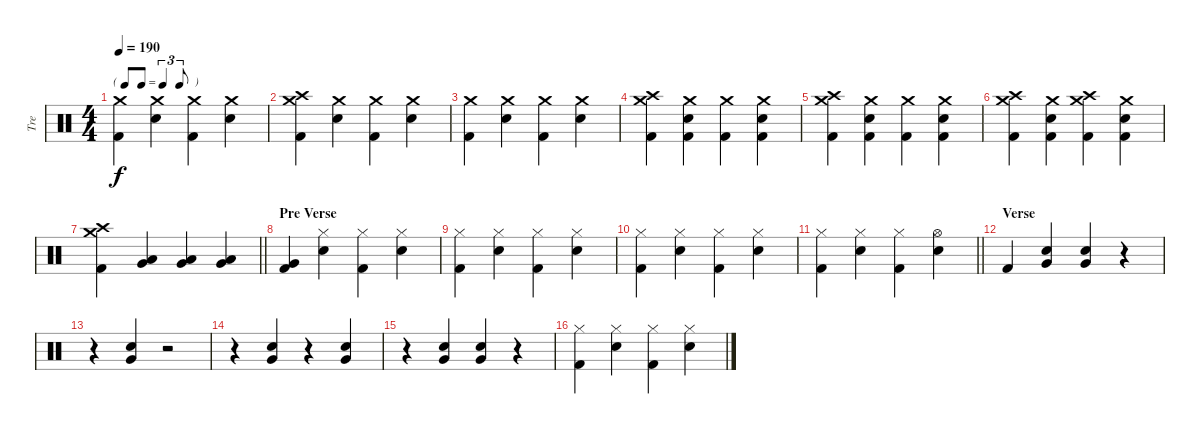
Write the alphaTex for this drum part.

\track ("Tre" "Tre") {instrument percussion}
\staff {score}
\articulation defaults
\ts (4 4)
\tf triplet8th
\tempo 190
\clef neutral
\ks c
("Crash medium (hit)" "Kick (hit) 2").4{dy f} ("Crash medium (hit)" "Snare (hit) 2").4 ("Crash medium (hit)" "Kick (hit) 2").4 ("Crash medium (hit)" "Snare (hit) 2").4 |
("Crash medium (hit)" "Crash high (hit)" "Kick (hit) 2").4 ("Crash medium (hit)" "Snare (hit) 2").4 ("Crash medium (hit)" "Kick (hit) 2").4 ("Crash medium (hit)" "Snare (hit) 2").4 |
("Crash medium (hit)" "Kick (hit) 2").4 ("Crash medium (hit)" "Snare (hit) 2").4 ("Crash medium (hit)" "Kick (hit) 2").4 ("Crash medium (hit)" "Snare (hit) 2").4 |
("Crash medium (hit)" "Crash high (hit)" "Kick (hit) 2").4 ("Crash medium (hit)" "Snare (hit) 2" "Kick (hit) 2").4 ("Crash medium (hit)" "Kick (hit) 2").4 ("Crash medium (hit)" "Snare (hit) 2" "Kick (hit) 2").4 |
("Crash medium (hit)" "Crash high (hit)" "Kick (hit) 2").4 ("Crash medium (hit)" "Snare (hit) 2" "Kick (hit) 2").4 ("Crash medium (hit)" "Kick (hit) 2").4 ("Crash medium (hit)" "Snare (hit) 2" "Kick (hit) 2").4 |
("Crash medium (hit)" "Crash high (hit)" "Kick (hit) 2").4 ("Crash medium (hit)" "Snare (hit) 2" "Kick (hit) 2").4 ("Crash medium (hit)" "Crash high (hit)" "Kick (hit) 2").4 ("Crash medium (hit)" "Snare (hit) 2" "Kick (hit) 2").4 |
\barLineRight lightlight
("Crash medium (hit)" "Crash high (hit)" "Kick (hit) 2").4 ("Very Low Tom (hit)" "Low Floor Tom (hit)").4 ("Very Low Tom (hit)" "Low Floor Tom (hit)").4 ("Very Low Tom (hit)" "Low Floor Tom (hit)").4 |
\section ("" "Pre Verse")
("Very Low Tom (hit)" "Kick (hit) 2").4 ("Hi-Hat (closed)" "Snare (hit) 2").4 ("Hi-Hat (closed)" "Kick (hit) 2").4 ("Hi-Hat (closed)" "Snare (hit) 2").4 |
("Hi-Hat (closed)" "Kick (hit) 2").4 ("Hi-Hat (closed)" "Snare (hit) 2").4 ("Hi-Hat (closed)" "Kick (hit) 2").4 ("Hi-Hat (closed)" "Snare (hit) 2").4 |
("Hi-Hat (closed)" "Kick (hit) 2").4 ("Hi-Hat (closed)" "Snare (hit) 2").4 ("Hi-Hat (closed)" "Kick (hit) 2").4 ("Hi-Hat (closed)" "Snare (hit) 2").4 |
\barLineRight lightlight
("Hi-Hat (closed)" "Kick (hit) 2").4 ("Hi-Hat (closed)" "Snare (hit) 2").4 ("Hi-Hat (closed)" "Kick (hit) 2").4 ("Hi-Hat (open)" "Snare (hit) 2").4 |
\section ("" "Verse")
"Kick (hit) 2".4 ("Snare (hit) 2" "Very Low Tom (hit)").4 ("Snare (hit) 2" "Very Low Tom (hit)").4 r.4 |
r.4 ("Snare (hit) 2" "Very Low Tom (hit)").4 r.2 |
r.4 ("Snare (hit) 2" "Very Low Tom (hit)").4 r.4 ("Snare (hit) 2" "Very Low Tom (hit)").4 |
r.4 ("Snare (hit) 2" "Very Low Tom (hit)").4 ("Snare (hit) 2" "Very Low Tom (hit)").4 r.4 |
("Hi-Hat (closed)" "Kick (hit) 2").4 ("Hi-Hat (closed)" "Snare (hit) 2").4 ("Hi-Hat (closed)" "Kick (hit) 2").4 ("Hi-Hat (closed)" "Snare (hit) 2").4
